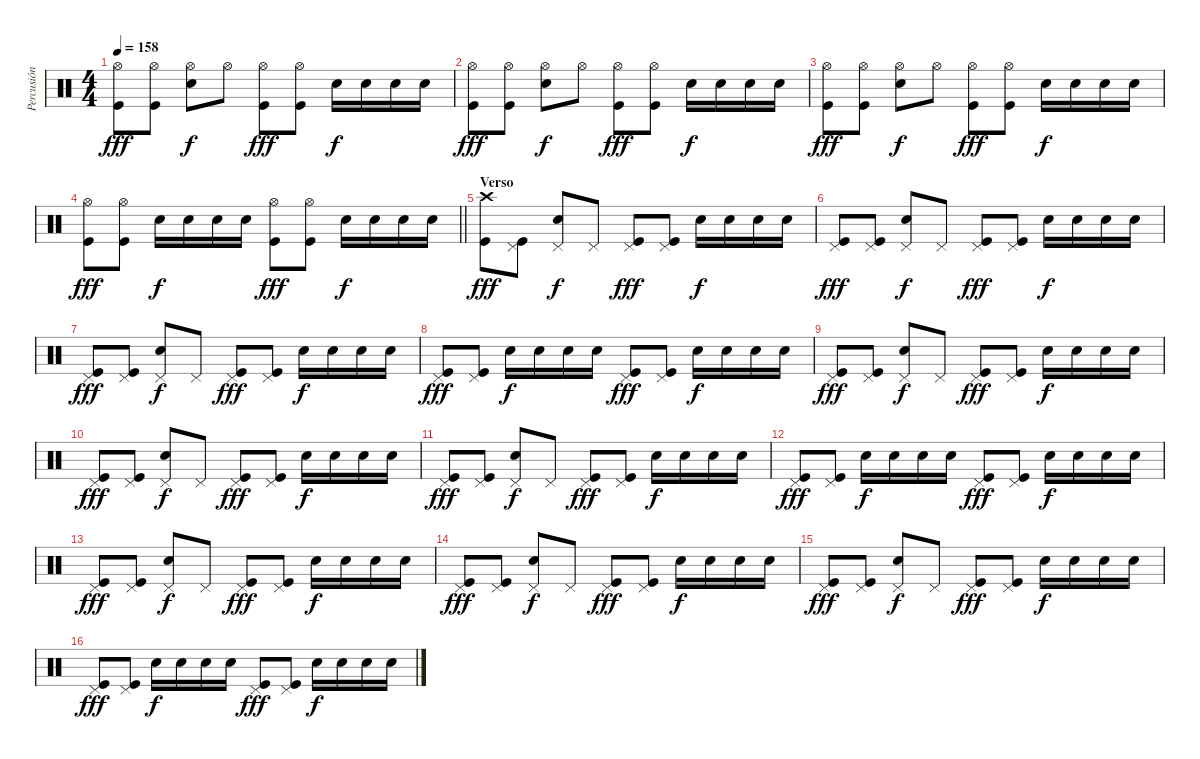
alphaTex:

\track ("Percusión" "Percusión") {instrument percussion}
\staff {score}
\articulation defaults
\ts (4 4)
\tempo 158
\clef neutral
\ks c
("Hi-Hat (open)" "Kick (hit)").8{dy fff} ("Hi-Hat (open)" "Kick (hit)").8 ("Hi-Hat (open)" "Electric Snare (hit)").8{dy f} "Hi-Hat (open)".8 ("Hi-Hat (open)" "Kick (hit)").8{dy fff} ("Hi-Hat (open)" "Kick (hit)").8 "Electric Snare (hit)".16{dy f} "Electric Snare (hit)".16 "Electric Snare (hit)".16 "Electric Snare (hit)".16 |
("Hi-Hat (open)" "Kick (hit)").8{dy fff} ("Hi-Hat (open)" "Kick (hit)").8 ("Hi-Hat (open)" "Electric Snare (hit)").8{dy f} "Hi-Hat (open)".8 ("Hi-Hat (open)" "Kick (hit)").8{dy fff} ("Hi-Hat (open)" "Kick (hit)").8 "Electric Snare (hit)".16{dy f} "Electric Snare (hit)".16 "Electric Snare (hit)".16 "Electric Snare (hit)".16 |
("Hi-Hat (open)" "Kick (hit)").8{dy fff} ("Hi-Hat (open)" "Kick (hit)").8 ("Hi-Hat (open)" "Electric Snare (hit)").8{dy f} "Hi-Hat (open)".8 ("Hi-Hat (open)" "Kick (hit)").8{dy fff} ("Hi-Hat (open)" "Kick (hit)").8 "Electric Snare (hit)".16{dy f} "Electric Snare (hit)".16 "Electric Snare (hit)".16 "Electric Snare (hit)".16 |
\barLineRight lightlight
("Hi-Hat (open)" "Kick (hit)").8{dy fff} ("Hi-Hat (open)" "Kick (hit)").8 "Electric Snare (hit)".16{dy f} "Electric Snare (hit)".16 "Electric Snare (hit)".16 "Electric Snare (hit)".16 ("Hi-Hat (open)" "Kick (hit)").8{dy fff} ("Hi-Hat (open)" "Kick (hit)").8 "Electric Snare (hit)".16{dy f} "Electric Snare (hit)".16 "Electric Snare (hit)".16 "Electric Snare (hit)".16 |
\section ("" "Verso")
("Crash high (hit)" "Kick (hit)").8{dy fff} ("Pedal Hi-Hat (hit)" "Kick (hit)").8 ("Pedal Hi-Hat (hit)" "Electric Snare (hit)").8{dy f} "Pedal Hi-Hat (hit)".8 ("Pedal Hi-Hat (hit)" "Kick (hit)").8{dy fff} ("Pedal Hi-Hat (hit)" "Kick (hit)").8 "Electric Snare (hit)".16{dy f} "Electric Snare (hit)".16 "Electric Snare (hit)".16 "Electric Snare (hit)".16 |
("Pedal Hi-Hat (hit)" "Kick (hit)").8{dy fff} ("Pedal Hi-Hat (hit)" "Kick (hit)").8 ("Pedal Hi-Hat (hit)" "Electric Snare (hit)").8{dy f} "Pedal Hi-Hat (hit)".8 ("Pedal Hi-Hat (hit)" "Kick (hit)").8{dy fff} ("Pedal Hi-Hat (hit)" "Kick (hit)").8 "Electric Snare (hit)".16{dy f} "Electric Snare (hit)".16 "Electric Snare (hit)".16 "Electric Snare (hit)".16 |
("Pedal Hi-Hat (hit)" "Kick (hit)").8{dy fff} ("Pedal Hi-Hat (hit)" "Kick (hit)").8 ("Pedal Hi-Hat (hit)" "Electric Snare (hit)").8{dy f} "Pedal Hi-Hat (hit)".8 ("Pedal Hi-Hat (hit)" "Kick (hit)").8{dy fff} ("Pedal Hi-Hat (hit)" "Kick (hit)").8 "Electric Snare (hit)".16{dy f} "Electric Snare (hit)".16 "Electric Snare (hit)".16 "Electric Snare (hit)".16 |
("Pedal Hi-Hat (hit)" "Kick (hit)").8{dy fff} ("Pedal Hi-Hat (hit)" "Kick (hit)").8 "Electric Snare (hit)".16{dy f} "Electric Snare (hit)".16 "Electric Snare (hit)".16 "Electric Snare (hit)".16 ("Pedal Hi-Hat (hit)" "Kick (hit)").8{dy fff} ("Pedal Hi-Hat (hit)" "Kick (hit)").8 "Electric Snare (hit)".16{dy f} "Electric Snare (hit)".16 "Electric Snare (hit)".16 "Electric Snare (hit)".16 |
("Pedal Hi-Hat (hit)" "Kick (hit)").8{dy fff} ("Pedal Hi-Hat (hit)" "Kick (hit)").8 ("Pedal Hi-Hat (hit)" "Electric Snare (hit)").8{dy f} "Pedal Hi-Hat (hit)".8 ("Pedal Hi-Hat (hit)" "Kick (hit)").8{dy fff} ("Pedal Hi-Hat (hit)" "Kick (hit)").8 "Electric Snare (hit)".16{dy f} "Electric Snare (hit)".16 "Electric Snare (hit)".16 "Electric Snare (hit)".16 |
("Pedal Hi-Hat (hit)" "Kick (hit)").8{dy fff} ("Pedal Hi-Hat (hit)" "Kick (hit)").8 ("Pedal Hi-Hat (hit)" "Electric Snare (hit)").8{dy f} "Pedal Hi-Hat (hit)".8 ("Pedal Hi-Hat (hit)" "Kick (hit)").8{dy fff} ("Pedal Hi-Hat (hit)" "Kick (hit)").8 "Electric Snare (hit)".16{dy f} "Electric Snare (hit)".16 "Electric Snare (hit)".16 "Electric Snare (hit)".16 |
("Pedal Hi-Hat (hit)" "Kick (hit)").8{dy fff} ("Pedal Hi-Hat (hit)" "Kick (hit)").8 ("Pedal Hi-Hat (hit)" "Electric Snare (hit)").8{dy f} "Pedal Hi-Hat (hit)".8 ("Pedal Hi-Hat (hit)" "Kick (hit)").8{dy fff} ("Pedal Hi-Hat (hit)" "Kick (hit)").8 "Electric Snare (hit)".16{dy f} "Electric Snare (hit)".16 "Electric Snare (hit)".16 "Electric Snare (hit)".16 |
("Pedal Hi-Hat (hit)" "Kick (hit)").8{dy fff} ("Pedal Hi-Hat (hit)" "Kick (hit)").8 "Electric Snare (hit)".16{dy f} "Electric Snare (hit)".16 "Electric Snare (hit)".16 "Electric Snare (hit)".16 ("Pedal Hi-Hat (hit)" "Kick (hit)").8{dy fff} ("Pedal Hi-Hat (hit)" "Kick (hit)").8 "Electric Snare (hit)".16{dy f} "Electric Snare (hit)".16 "Electric Snare (hit)".16 "Electric Snare (hit)".16 |
("Pedal Hi-Hat (hit)" "Kick (hit)").8{dy fff} ("Pedal Hi-Hat (hit)" "Kick (hit)").8 ("Pedal Hi-Hat (hit)" "Electric Snare (hit)").8{dy f} "Pedal Hi-Hat (hit)".8 ("Pedal Hi-Hat (hit)" "Kick (hit)").8{dy fff} ("Pedal Hi-Hat (hit)" "Kick (hit)").8 "Electric Snare (hit)".16{dy f} "Electric Snare (hit)".16 "Electric Snare (hit)".16 "Electric Snare (hit)".16 |
("Pedal Hi-Hat (hit)" "Kick (hit)").8{dy fff} ("Pedal Hi-Hat (hit)" "Kick (hit)").8 ("Pedal Hi-Hat (hit)" "Electric Snare (hit)").8{dy f} "Pedal Hi-Hat (hit)".8 ("Pedal Hi-Hat (hit)" "Kick (hit)").8{dy fff} ("Pedal Hi-Hat (hit)" "Kick (hit)").8 "Electric Snare (hit)".16{dy f} "Electric Snare (hit)".16 "Electric Snare (hit)".16 "Electric Snare (hit)".16 |
("Pedal Hi-Hat (hit)" "Kick (hit)").8{dy fff} ("Pedal Hi-Hat (hit)" "Kick (hit)").8 ("Pedal Hi-Hat (hit)" "Electric Snare (hit)").8{dy f} "Pedal Hi-Hat (hit)".8 ("Pedal Hi-Hat (hit)" "Kick (hit)").8{dy fff} ("Pedal Hi-Hat (hit)" "Kick (hit)").8 "Electric Snare (hit)".16{dy f} "Electric Snare (hit)".16 "Electric Snare (hit)".16 "Electric Snare (hit)".16 |
("Pedal Hi-Hat (hit)" "Kick (hit)").8{dy fff} ("Pedal Hi-Hat (hit)" "Kick (hit)").8 "Electric Snare (hit)".16{dy f} "Electric Snare (hit)".16 "Electric Snare (hit)".16 "Electric Snare (hit)".16 ("Pedal Hi-Hat (hit)" "Kick (hit)").8{dy fff} ("Pedal Hi-Hat (hit)" "Kick (hit)").8 "Electric Snare (hit)".16{dy f} "Electric Snare (hit)".16 "Electric Snare (hit)".16 "Electric Snare (hit)".16
